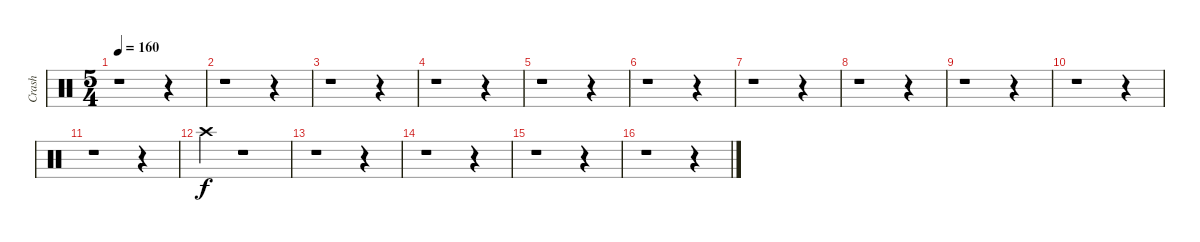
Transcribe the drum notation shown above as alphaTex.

\track ("Crash" "Crash") {instrument percussion}
\staff {score}
\articulation defaults
\ts (5 4)
\tempo 160
\clef neutral
\ks c
r.1{dy f} r.4 |
r.1 r.4 |
r.1 r.4 |
r.1 r.4 |
r.1 r.4 |
r.1 r.4 |
r.1 r.4 |
r.1 r.4 |
r.1 r.4 |
r.1 r.4 |
r.1 r.4 |
"Crash high (hit)".4 r.1 |
r.1 r.4 |
r.1 r.4 |
r.1 r.4 |
r.1 r.4
